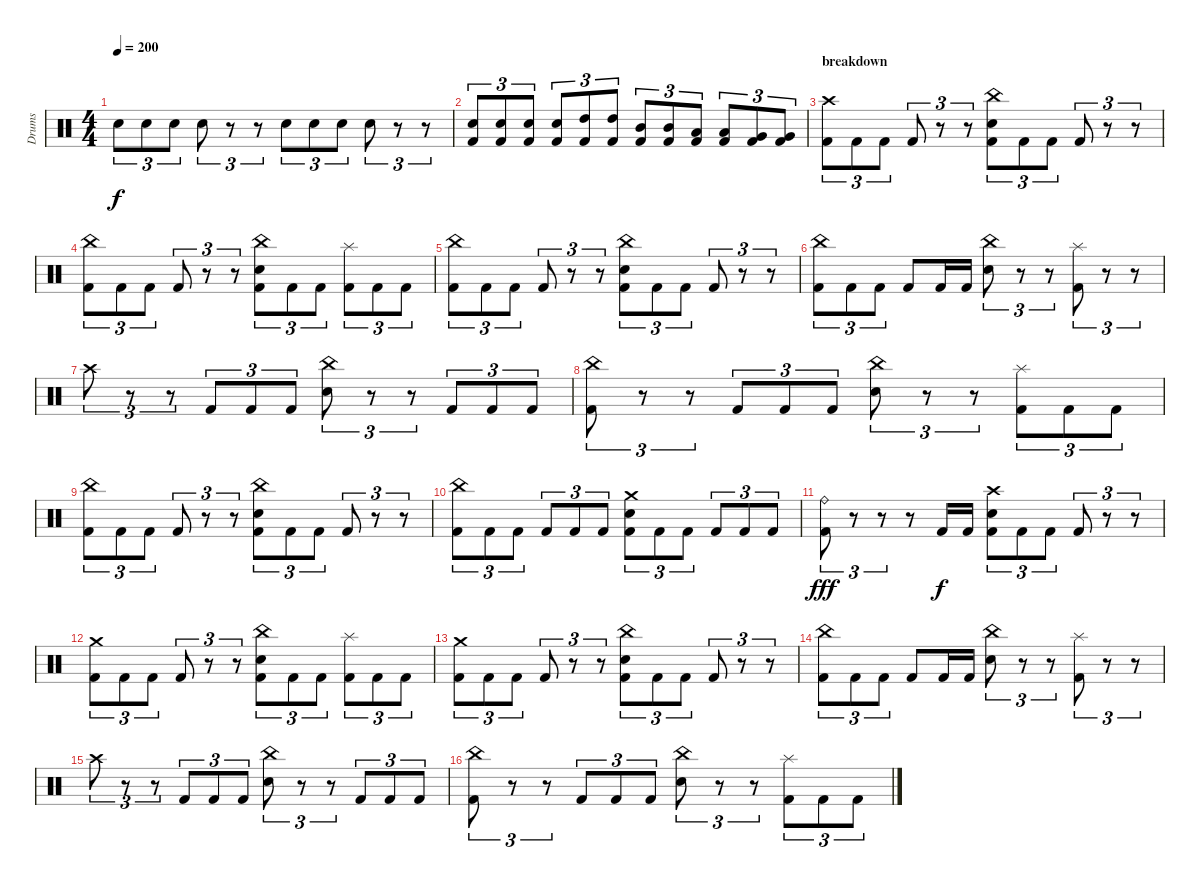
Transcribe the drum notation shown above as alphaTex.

\track ("Drums" "Drums") {instrument percussion}
\staff {score}
\articulation defaults
\ts (4 4)
\tempo 200
\clef neutral
\ks c "Electric Snare (hit)".8{tu (3 2) dy f} "Electric Snare (hit)".8{tu (3 2)} "Electric Snare (hit)".8{tu (3 2)} "Electric Snare (hit)".8{tu (3 2)}
r.8{tu (3 2)} r.8{tu (3 2)} "Electric Snare (hit)".8{tu (3 2)} "Electric Snare (hit)".8{tu (3 2)} "Electric Snare (hit)".8{tu (3 2)} "Electric Snare (hit)".8{tu (3 2)} r.8{tu (3 2)} r.8{tu (3 2)} |
("Electric Snare (hit)" "Kick (hit) 2").8{tu (3 2)} ("Electric Snare (hit)" "Kick (hit) 2").8{tu (3 2)} ("Electric Snare (hit)" "Kick (hit) 2").8{tu (3 2)} ("Electric Snare (hit)" "Kick (hit) 2").8{tu (3 2)} ("High Tom (hit)" "Kick (hit) 2").8{tu (3 2)} ("High Tom (hit)" "Kick (hit) 2").8{tu (3 2)} ("Mid Tom (hit)" "Kick (hit) 2").8{tu (3 2)} ("Mid Tom (hit)" "Kick (hit) 2").8{tu (3 2)} ("Low Tom (hit)" "Kick (hit) 2").8{tu (3 2)} ("Low Tom (hit)" "Kick (hit) 2").8{tu (3 2)} ("Very Low Tom (hit)" "Kick (hit) 2").8{tu (3 2)} ("Very Low Tom (hit)" "Kick (hit) 2").8{tu (3 2)} |
\section ("" "breakdown")
("Crash high (hit)" "Kick (hit) 2").8{tu (3 2)} "Kick (hit) 2".8{tu (3 2)} "Kick (hit) 2".8{tu (3 2)} "Kick (hit) 2".8{tu (3 2)} r.8{tu (3 2)} r.8{tu (3 2)} ("China (hit)" "Electric Snare (hit)" "Kick (hit) 2").8{tu (3 2)} "Kick (hit) 2".8{tu (3 2)} "Kick (hit) 2".8{tu (3 2)} "Kick (hit) 2".8{tu (3 2)} r.8{tu (3 2)} r.8{tu (3 2)} |
("China (hit)" "Kick (hit) 2").8{tu (3 2)} "Kick (hit) 2".8{tu (3 2)} "Kick (hit) 2".8{tu (3 2)} "Kick (hit) 2".8{tu (3 2)} r.8{tu (3 2)} r.8{tu (3 2)} ("China (hit)" "Electric Snare (hit)" "Kick (hit) 2").8{tu (3 2)} "Kick (hit) 2".8{tu (3 2)} "Kick (hit) 2".8{tu (3 2)} ("Splash (hit)" "Kick (hit) 2").8{tu (3 2)} "Kick (hit) 2".8{tu (3 2)} "Kick (hit) 2".8{tu (3 2)} |
("China (hit)" "Kick (hit) 2").8{tu (3 2)} "Kick (hit) 2".8{tu (3 2)} "Kick (hit) 2".8{tu (3 2)} "Kick (hit) 2".8{tu (3 2)} r.8{tu (3 2)} r.8{tu (3 2)} ("China (hit)" "Electric Snare (hit)" "Kick (hit) 2").8{tu (3 2)} "Kick (hit) 2".8{tu (3 2)} "Kick (hit) 2".8{tu (3 2)} "Kick (hit) 2".8{tu (3 2)} r.8{tu (3 2)} r.8{tu (3 2)} |
("China (hit)" "Kick (hit) 2").8{tu (3 2)} "Kick (hit) 2".8{tu (3 2)} "Kick (hit) 2".8{tu (3 2)} "Kick (hit) 2".8 "Kick (hit) 2".16 "Kick (hit) 2".16 ("China (hit)" "Electric Snare (hit)").8{tu (3 2)} r.8{tu (3 2)} r.8{tu (3 2)} ("Splash (hit)" "Kick (hit) 2").8{tu (3 2)} r.8{tu (3 2)} r.8{tu (3 2)} |
"Crash high (hit)".8{tu (3 2)} r.8{tu (3 2)} r.8{tu (3 2)} "Kick (hit) 2".8{tu (3 2)} "Kick (hit) 2".8{tu (3 2)} "Kick (hit) 2".8{tu (3 2)} ("China (hit)" "Electric Snare (hit)").8{tu (3 2)} r.8{tu (3 2)} r.8{tu (3 2)} "Kick (hit) 2".8{tu (3 2)} "Kick (hit) 2".8{tu (3 2)} "Kick (hit) 2".8{tu (3 2)} |
("China (hit)" "Kick (hit) 2").8{tu (3 2)} r.8{tu (3 2)} r.8{tu (3 2)} "Kick (hit) 2".8{tu (3 2)} "Kick (hit) 2".8{tu (3 2)} "Kick (hit) 2".8{tu (3 2)} ("China (hit)" "Electric Snare (hit)").8{tu (3 2)} r.8{tu (3 2)} r.8{tu (3 2)} ("Splash (hit)" "Kick (hit) 2").8{tu (3 2)} "Kick (hit) 2".8{tu (3 2)} "Kick (hit) 2".8{tu (3 2)} |
("China (hit)" "Kick (hit) 2").8{tu (3 2)} "Kick (hit) 2".8{tu (3 2)} "Kick (hit) 2".8{tu (3 2)} "Kick (hit) 2".8{tu (3 2)} r.8{tu (3 2)} r.8{tu (3 2)} ("China (hit)" "Electric Snare (hit)" "Kick (hit) 2").8{tu (3 2)} "Kick (hit) 2".8{tu (3 2)} "Kick (hit) 2".8{tu (3 2)} "Kick (hit) 2".8{tu (3 2)} r.8{tu (3 2)} r.8{tu (3 2)} |
("China (hit)" "Kick (hit) 2").8{tu (3 2)} "Kick (hit) 2".8{tu (3 2)} "Kick (hit) 2".8{tu (3 2)} "Kick (hit) 2".8{tu (3 2)} "Kick (hit) 2".8{tu (3 2)} "Kick (hit) 2".8{tu (3 2)} ("Crash medium (hit)" "Electric Snare (hit)" "Kick (hit) 2").8{tu (3 2)} "Kick (hit) 2".8{tu (3 2)} "Kick (hit) 2".8{tu (3 2)} "Kick (hit) 2".8{tu (3 2)} "Kick (hit) 2".8{tu (3 2)} "Kick (hit) 2".8{tu (3 2)} |
("Ride (bell)" "Kick (hit) 2").8{tu (3 2) dy fff} r.8{tu (3 2)} r.8{tu (3 2)} r.8 "Kick (hit) 2".16{dy f} "Kick (hit) 2".16 ("Crash high (hit)" "Electric Snare (hit)" "Kick (hit) 2").8{tu (3 2)} "Kick (hit) 2".8{tu (3 2)} "Kick (hit) 2".8{tu (3 2)} "Kick (hit) 2".8{tu (3 2)} r.8{tu (3 2)} r.8{tu (3 2)} |
("Crash medium (hit)" "Kick (hit) 2").8{tu (3 2)} "Kick (hit) 2".8{tu (3 2)} "Kick (hit) 2".8{tu (3 2)} "Kick (hit) 2".8{tu (3 2)} r.8{tu (3 2)} r.8{tu (3 2)} ("China (hit)" "Electric Snare (hit)" "Kick (hit) 2").8{tu (3 2)} "Kick (hit) 2".8{tu (3 2)} "Kick (hit) 2".8{tu (3 2)} ("Splash (hit)" "Kick (hit) 2").8{tu (3 2)} "Kick (hit) 2".8{tu (3 2)} "Kick (hit) 2".8{tu (3 2)} |
("Crash medium (hit)" "Kick (hit) 2").8{tu (3 2)} "Kick (hit) 2".8{tu (3 2)} "Kick (hit) 2".8{tu (3 2)} "Kick (hit) 2".8{tu (3 2)} r.8{tu (3 2)} r.8{tu (3 2)} ("China (hit)" "Electric Snare (hit)" "Kick (hit) 2").8{tu (3 2)} "Kick (hit) 2".8{tu (3 2)} "Kick (hit) 2".8{tu (3 2)} "Kick (hit) 2".8{tu (3 2)} r.8{tu (3 2)} r.8{tu (3 2)} |
("China (hit)" "Kick (hit) 2").8{tu (3 2)} "Kick (hit) 2".8{tu (3 2)} "Kick (hit) 2".8{tu (3 2)} "Kick (hit) 2".8 "Kick (hit) 2".16 "Kick (hit) 2".16 ("China (hit)" "Electric Snare (hit)").8{tu (3 2)} r.8{tu (3 2)} r.8{tu (3 2)} ("Splash (hit)" "Kick (hit) 2").8{tu (3 2)} r.8{tu (3 2)} r.8{tu (3 2)} |
"Crash high (hit)".8{tu (3 2)} r.8{tu (3 2)} r.8{tu (3 2)} "Kick (hit) 2".8{tu (3 2)} "Kick (hit) 2".8{tu (3 2)} "Kick (hit) 2".8{tu (3 2)} ("China (hit)" "Electric Snare (hit)").8{tu (3 2)} r.8{tu (3 2)} r.8{tu (3 2)} "Kick (hit) 2".8{tu (3 2)} "Kick (hit) 2".8{tu (3 2)} "Kick (hit) 2".8{tu (3 2)} |
("China (hit)" "Kick (hit) 2").8{tu (3 2)} r.8{tu (3 2)} r.8{tu (3 2)} "Kick (hit) 2".8{tu (3 2)} "Kick (hit) 2".8{tu (3 2)} "Kick (hit) 2".8{tu (3 2)} ("China (hit)" "Electric Snare (hit)").8{tu (3 2)} r.8{tu (3 2)} r.8{tu (3 2)} ("Splash (hit)" "Kick (hit) 2").8{tu (3 2)} "Kick (hit) 2".8{tu (3 2)} "Kick (hit) 2".8{tu (3 2)}
